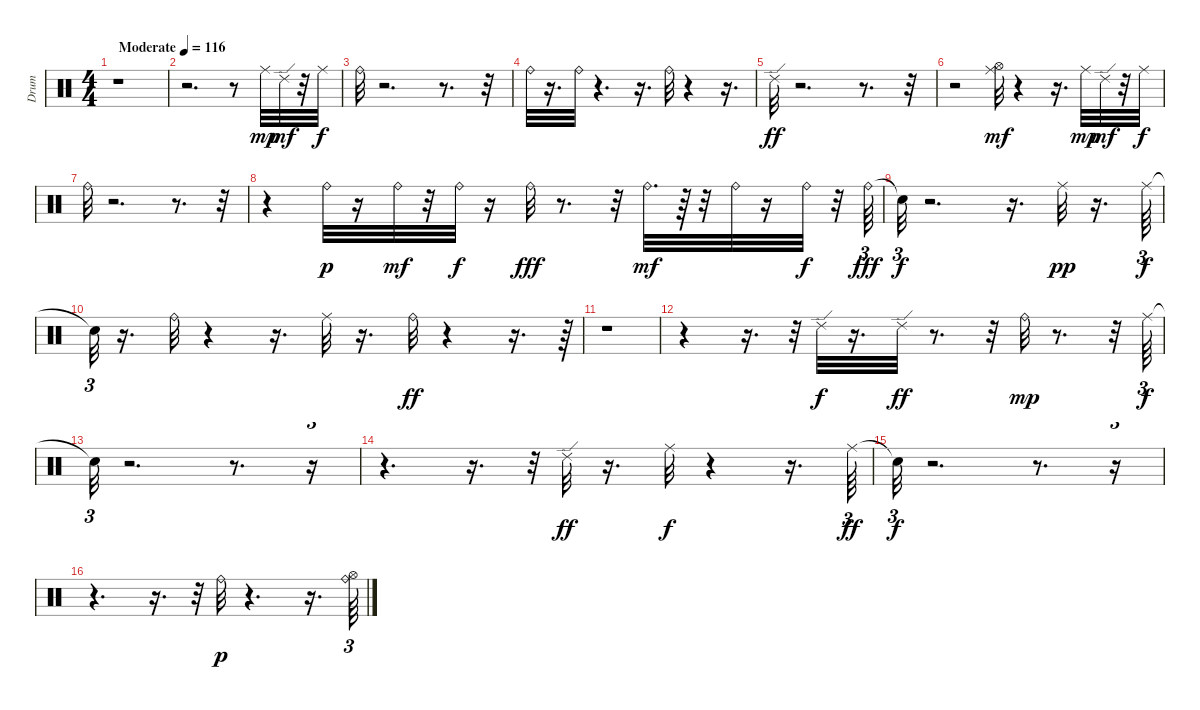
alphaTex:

\track ("Drum    " "Drum    ") {instrument percussion}
\staff {score}
\articulation defaults
\ts (4 4)
\tempo (116 "Moderate")
\clef neutral
\ks c
r.1{dy mp} |
r.2{d} r.8 "Ride (middle)".32 "Ride (edge) 2".32{dy mf} r.32 "Ride (middle)".32{dy f} |
"Ride (bell)".32 r.2{d} r.8{d} r.32 |
"Ride (bell)".32 r.16{d} "Ride (bell)".32 r.4{d} r.16{d} "Ride (bell)".32 r.4 r.16{d} |
"Ride (edge) 2".32{dy ff} r.2{d} r.8{d} r.32 |
r.2 ("Hi-Hat (open)" "Ride (middle)").32{dy mf} r.4 r.16{d} "Ride (middle)".32{dy mp} "Ride (edge) 2".32{dy mf} r.32 "Ride (middle)".32{dy f} |
"Ride (bell)".32 r.2{d} r.8{d} r.32 |
r.4 "Ride (bell)".32{dy p} r.16 "Ride (bell)".32{dy mf} r.32 "Ride (bell)".32{dy f} r.16 "Ride (bell)".32{dy fff} r.8{d} r.32 "Ride (bell)".32{d dy mf} r.64 r.32 "Ride (bell)".32 r.16 "Ride (bell)".32{dy f} r.32 "Ride (bell)".64{tu (3 2) dy fff} |
"Snare (hit)"{t}.32{tu (3 2) dy f} r.2{d} r.16{d} "Ride (middle)".32{dy pp} r.16{d} "Ride (middle)".64{tu (3 2) dy f} |
"Snare (hit)"{t}.32{tu (3 2)} r.16{d} "Ride (bell)".32 r.4 r.16{d} "Ride (middle)".32 r.16{d} "Ride (bell)".32{dy ff} r.4 r.16{d} r.64{tu (3 2)} |
r.1 |
r.4 r.16{d} r.32{tu (3 2)} "Ride (edge) 2".32{dy f} r.16{d} "Ride (edge) 2".32{dy ff} r.8{d} r.32 "Ride (bell)".32{dy mp} r.8{d} r.32 "Ride (middle)".64{tu (3 2) dy f} |
"Snare (hit)"{t}.32{tu (3 2)} r.2{d} r.8{d} r.16{tu (3 2)} |
r.4{d} r.16{d} r.32{tu (3 2)} "Ride (edge) 2".32{dy ff} r.16{d} "Ride (middle)".32{dy f} r.4 r.16{d} "Ride (middle)".64{tu (3 2) dy ff} |
"Snare (hit)"{t}.32{tu (3 2) dy f} r.2{d} r.8{d} r.16{tu (3 2)} |
r.4{d} r.16{d} r.32{tu (3 2)} "Ride (bell)".32{dy p} r.4{d} r.16{d} ("Ride (bell)" "Hi-Hat (open)").64{tu (3 2)}
